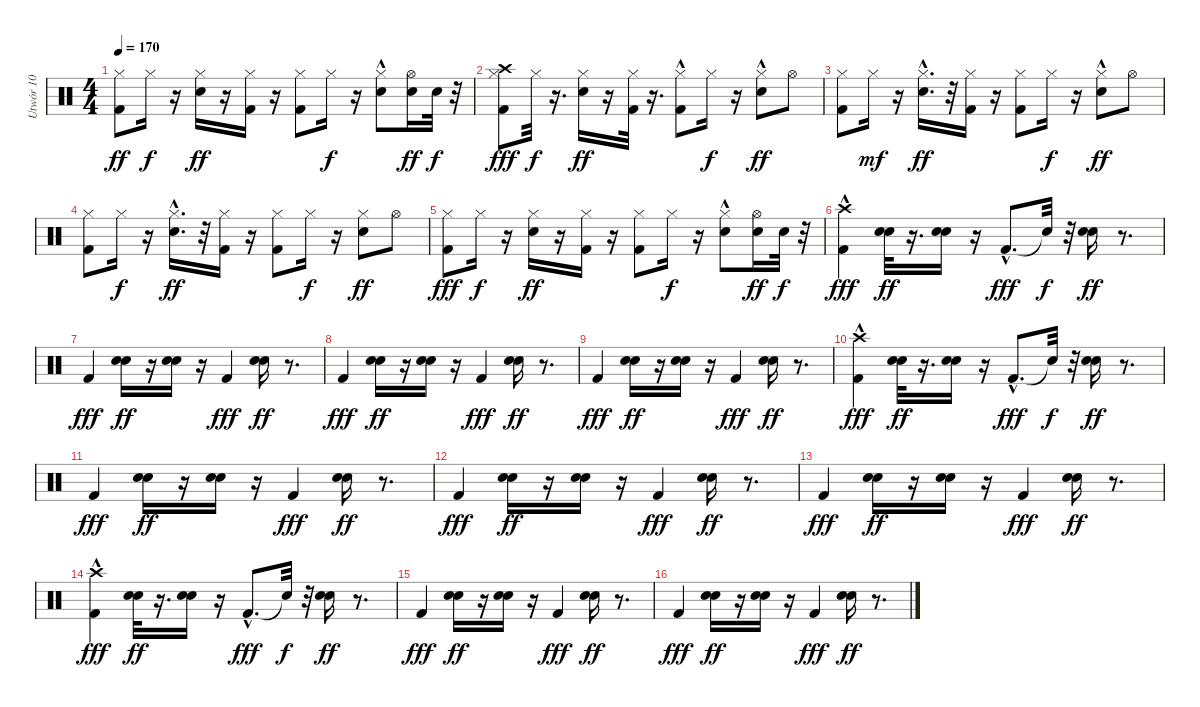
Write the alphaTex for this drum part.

\track ("Utwór 10" "Utwór 10") {instrument percussion}
\staff {score}
\articulation defaults
\ts (4 4)
\tempo 170
\clef neutral
\ks c
("Kick (hit) 2" "Hi-Hat (closed)").8{dy ff} "Hi-Hat (closed)".16{dy f} r.16 ("Snare (hit) 2" "Hi-Hat (closed)").16{dy ff} r.16 ("Kick (hit) 2" "Hi-Hat (closed)").16 r.16 ("Hi-Hat (closed)" "Kick (hit) 2").8 "Hi-Hat (closed)".16{dy f} r.16 ("Hi-Hat (closed)"{hac} "Snare (hit) 2").8 ("Hi-Hat (open)" "Snare (hit) 2").16{dy ff} "Snare (hit) 2".32{dy f} r.32 |
("Hi-Hat (closed)" "Kick (hit) 2" "Crash high (hit)").8{dy fff} "Hi-Hat (closed)".32{dy f} r.16{d} ("Snare (hit) 2" "Hi-Hat (closed)").16{dy ff} r.16 ("Hi-Hat (closed)" "Kick (hit) 2").32 r.16{d} ("Hi-Hat (closed)" "Kick (hit) 2"{hac}).8 "Hi-Hat (closed)".16{dy f} r.16 ("Snare (hit) 2" "Hi-Hat (closed)"{hac}).8{dy ff} "Hi-Hat (open)".8 |
("Hi-Hat (closed)" "Kick (hit) 2").8 "Hi-Hat (closed)".16{dy mf} r.16 ("Hi-Hat (closed)" "Snare (hit) 2"{hac}).16{d dy ff} r.32 ("Hi-Hat (closed)" "Kick (hit) 2").16 r.16 ("Kick (hit) 2" "Hi-Hat (closed)").8 "Hi-Hat (closed)".16{dy f} r.16 ("Hi-Hat (closed)" "Snare (hit) 2"{hac}).8{dy ff} "Hi-Hat (open)".8 |
("Kick (hit) 2" "Hi-Hat (closed)").8 "Hi-Hat (closed)".16{dy f} r.16 ("Snare (hit) 2"{hac} "Hi-Hat (closed)").16{d dy ff} r.32 ("Hi-Hat (closed)" "Kick (hit) 2").16 r.16 ("Hi-Hat (closed)" "Kick (hit) 2").8 "Hi-Hat (closed)".16{dy f} r.16 ("Hi-Hat (closed)" "Snare (hit) 2").8{dy ff} "Hi-Hat (open)".8 |
("Hi-Hat (closed)" "Kick (hit) 2").8{dy fff} "Hi-Hat (closed)".16{dy f} r.16 ("Snare (hit) 2" "Hi-Hat (closed)").16{dy ff} r.16 ("Kick (hit) 2" "Hi-Hat (closed)").16 r.16 ("Kick (hit) 2" "Hi-Hat (closed)").8 "Hi-Hat (closed)".16{dy f} r.16 ("Snare (hit) 2" "Hi-Hat (closed)"{hac}).8 ("Hi-Hat (open)" "Snare (hit) 2").16{dy ff} "Snare (hit) 2".32{dy f} r.32 |
("Crash high (hit)" "Kick (hit) 2"{hac}).4{dy fff} ("Snare (hit) 2" "Snare (hit) 2").32{dy ff} r.16{d} ("Snare (hit) 2" "Snare (hit) 2").16 r.16 "Kick (hit) 2"{hac}.8{d dy fff} "Snare (hit)"{t}.32{dy f} r.32 ("Snare (hit) 2" "Snare (hit) 2").16{dy ff} r.8{d} |
"Kick (hit) 2".4{dy fff} ("Snare (hit) 2" "Snare (hit) 2").16{dy ff} r.16 ("Snare (hit) 2" "Snare (hit) 2").16 r.16 "Kick (hit) 2".4{dy fff} ("Snare (hit) 2" "Snare (hit) 2").16{dy ff} r.8{d} |
"Kick (hit) 2".4{dy fff} ("Snare (hit) 2" "Snare (hit) 2").16{dy ff} r.16 ("Snare (hit) 2" "Snare (hit) 2").16 r.16 "Kick (hit) 2".4{dy fff} ("Snare (hit) 2" "Snare (hit) 2").16{dy ff} r.8{d} |
"Kick (hit) 2".4{dy fff} ("Snare (hit) 2" "Snare (hit) 2").16{dy ff} r.16 ("Snare (hit) 2" "Snare (hit) 2").16 r.16 "Kick (hit) 2".4{dy fff} ("Snare (hit) 2" "Snare (hit) 2").16{dy ff} r.8{d} |
("Crash high (hit)" "Kick (hit) 2"{hac}).4{dy fff} ("Snare (hit) 2" "Snare (hit) 2").32{dy ff} r.16{d} ("Snare (hit) 2" "Snare (hit) 2").16 r.16 "Kick (hit) 2"{hac}.8{d dy fff} "Snare (hit)"{t}.32{dy f} r.32 ("Snare (hit) 2" "Snare (hit) 2").16{dy ff} r.8{d} |
"Kick (hit) 2".4{dy fff} ("Snare (hit) 2" "Snare (hit) 2").16{dy ff} r.16 ("Snare (hit) 2" "Snare (hit) 2").16 r.16 "Kick (hit) 2".4{dy fff} ("Snare (hit) 2" "Snare (hit) 2").16{dy ff} r.8{d} |
"Kick (hit) 2".4{dy fff} ("Snare (hit) 2" "Snare (hit) 2").16{dy ff} r.16 ("Snare (hit) 2" "Snare (hit) 2").16 r.16 "Kick (hit) 2".4{dy fff} ("Snare (hit) 2" "Snare (hit) 2").16{dy ff} r.8{d} |
"Kick (hit) 2".4{dy fff} ("Snare (hit) 2" "Snare (hit) 2").16{dy ff} r.16 ("Snare (hit) 2" "Snare (hit) 2").16 r.16 "Kick (hit) 2".4{dy fff} ("Snare (hit) 2" "Snare (hit) 2").16{dy ff} r.8{d} |
("Crash high (hit)" "Kick (hit) 2"{hac}).4{dy fff} ("Snare (hit) 2" "Snare (hit) 2").32{dy ff} r.16{d} ("Snare (hit) 2" "Snare (hit) 2").16 r.16 "Kick (hit) 2"{hac}.8{d dy fff} "Snare (hit)"{t}.32{dy f} r.32 ("Snare (hit) 2" "Snare (hit) 2").16{dy ff} r.8{d} |
"Kick (hit) 2".4{dy fff} ("Snare (hit) 2" "Snare (hit) 2").16{dy ff} r.16 ("Snare (hit) 2" "Snare (hit) 2").16 r.16 "Kick (hit) 2".4{dy fff} ("Snare (hit) 2" "Snare (hit) 2").16{dy ff} r.8{d} |
"Kick (hit) 2".4{dy fff} ("Snare (hit) 2" "Snare (hit) 2").16{dy ff} r.16 ("Snare (hit) 2" "Snare (hit) 2").16 r.16 "Kick (hit) 2".4{dy fff} ("Snare (hit) 2" "Snare (hit) 2").16{dy ff} r.8{d}
